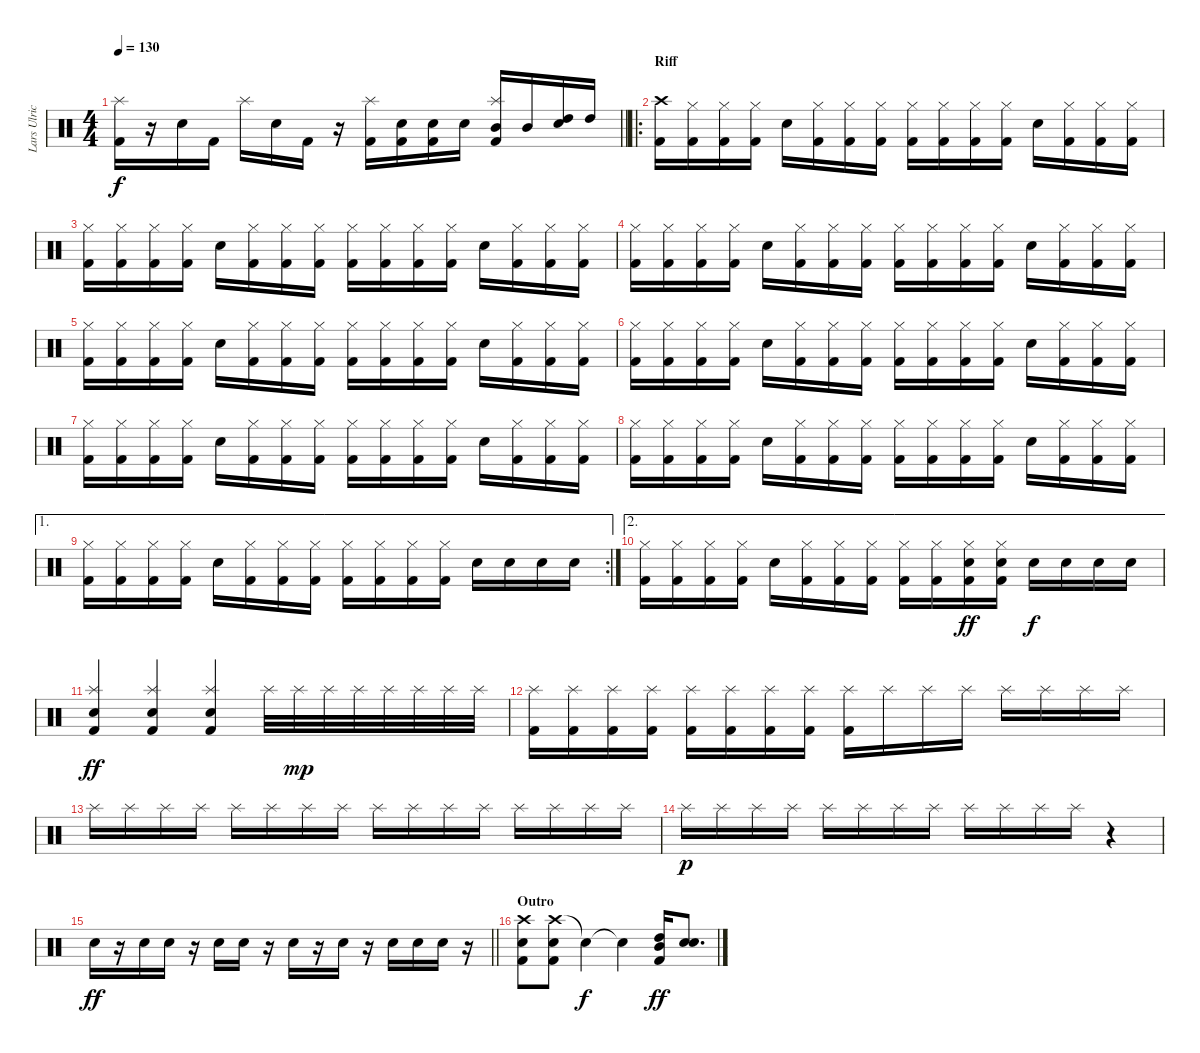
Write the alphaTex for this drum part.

\track ("Lars Ulrich" "Lars Ulric") {instrument percussion}
\staff {score}
\articulation defaults
\ts (4 4)
\tempo 130
\clef neutral
\barLineRight lightlight
\ks c
("Kick (hit) 2" "Splash (hit)").16{dy f} r.16 "Electric Snare (hit)".16 "Kick (hit) 2".16 "Splash (hit)".16 "Electric Snare (hit)".16 "Kick (hit) 2".16 r.16 ("Kick (hit) 2" "Splash (hit)").16 ("Kick (hit) 2" "Electric Snare (hit)").16 ("Kick (hit) 2" "Electric Snare (hit)").16 "Electric Snare (hit)".16 ("Kick (hit) 2" "Splash (hit)" "Mid Tom (hit)").16 "Mid Tom (hit)".16 ("Electric Snare (hit)" "High Tom (hit)").16 "High Tom (hit)".16 |
\ro
\section ("" "Riff")
("Kick (hit) 2" "Crash high (hit)").16 ("Kick (hit) 2" "Hi-Hat (closed)").16 ("Kick (hit) 2" "Hi-Hat (closed)").16 ("Kick (hit) 2" "Hi-Hat (closed)").16 "Electric Snare (hit)".16 ("Kick (hit) 2" "Hi-Hat (closed)").16 ("Kick (hit) 2" "Hi-Hat (closed)").16 ("Kick (hit) 2" "Hi-Hat (closed)").16 ("Kick (hit) 2" "Hi-Hat (closed)").16 ("Kick (hit) 2" "Hi-Hat (closed)").16 ("Kick (hit) 2" "Hi-Hat (closed)").16 ("Kick (hit) 2" "Hi-Hat (closed)").16 "Electric Snare (hit)".16 ("Kick (hit) 2" "Hi-Hat (closed)").16 ("Kick (hit) 2" "Hi-Hat (closed)").16 ("Kick (hit) 2" "Hi-Hat (closed)").16 |
("Kick (hit) 2" "Hi-Hat (closed)").16 ("Kick (hit) 2" "Hi-Hat (closed)").16 ("Kick (hit) 2" "Hi-Hat (closed)").16 ("Kick (hit) 2" "Hi-Hat (closed)").16 "Electric Snare (hit)".16 ("Kick (hit) 2" "Hi-Hat (closed)").16 ("Kick (hit) 2" "Hi-Hat (closed)").16 ("Kick (hit) 2" "Hi-Hat (closed)").16 ("Kick (hit) 2" "Hi-Hat (closed)").16 ("Kick (hit) 2" "Hi-Hat (closed)").16 ("Kick (hit) 2" "Hi-Hat (closed)").16 ("Kick (hit) 2" "Hi-Hat (closed)").16 "Electric Snare (hit)".16 ("Kick (hit) 2" "Hi-Hat (closed)").16 ("Kick (hit) 2" "Hi-Hat (closed)").16 ("Kick (hit) 2" "Hi-Hat (closed)").16 |
("Kick (hit) 2" "Hi-Hat (closed)").16 ("Kick (hit) 2" "Hi-Hat (closed)").16 ("Kick (hit) 2" "Hi-Hat (closed)").16 ("Kick (hit) 2" "Hi-Hat (closed)").16 "Electric Snare (hit)".16 ("Kick (hit) 2" "Hi-Hat (closed)").16 ("Kick (hit) 2" "Hi-Hat (closed)").16 ("Kick (hit) 2" "Hi-Hat (closed)").16 ("Kick (hit) 2" "Hi-Hat (closed)").16 ("Kick (hit) 2" "Hi-Hat (closed)").16 ("Kick (hit) 2" "Hi-Hat (closed)").16 ("Kick (hit) 2" "Hi-Hat (closed)").16 "Electric Snare (hit)".16 ("Kick (hit) 2" "Hi-Hat (closed)").16 ("Kick (hit) 2" "Hi-Hat (closed)").16 ("Kick (hit) 2" "Hi-Hat (closed)").16 |
("Kick (hit) 2" "Hi-Hat (closed)").16 ("Kick (hit) 2" "Hi-Hat (closed)").16 ("Kick (hit) 2" "Hi-Hat (closed)").16 ("Kick (hit) 2" "Hi-Hat (closed)").16 "Electric Snare (hit)".16 ("Kick (hit) 2" "Hi-Hat (closed)").16 ("Kick (hit) 2" "Hi-Hat (closed)").16 ("Kick (hit) 2" "Hi-Hat (closed)").16 ("Kick (hit) 2" "Hi-Hat (closed)").16 ("Kick (hit) 2" "Hi-Hat (closed)").16 ("Kick (hit) 2" "Hi-Hat (closed)").16 ("Kick (hit) 2" "Hi-Hat (closed)").16 "Electric Snare (hit)".16 ("Kick (hit) 2" "Hi-Hat (closed)").16 ("Kick (hit) 2" "Hi-Hat (closed)").16 ("Kick (hit) 2" "Hi-Hat (closed)").16 |
("Kick (hit) 2" "Hi-Hat (closed)").16 ("Kick (hit) 2" "Hi-Hat (closed)").16 ("Kick (hit) 2" "Hi-Hat (closed)").16 ("Kick (hit) 2" "Hi-Hat (closed)").16 "Electric Snare (hit)".16 ("Kick (hit) 2" "Hi-Hat (closed)").16 ("Kick (hit) 2" "Hi-Hat (closed)").16 ("Kick (hit) 2" "Hi-Hat (closed)").16 ("Kick (hit) 2" "Hi-Hat (closed)").16 ("Kick (hit) 2" "Hi-Hat (closed)").16 ("Kick (hit) 2" "Hi-Hat (closed)").16 ("Kick (hit) 2" "Hi-Hat (closed)").16 "Electric Snare (hit)".16 ("Kick (hit) 2" "Hi-Hat (closed)").16 ("Kick (hit) 2" "Hi-Hat (closed)").16 ("Kick (hit) 2" "Hi-Hat (closed)").16 |
("Kick (hit) 2" "Hi-Hat (closed)").16 ("Kick (hit) 2" "Hi-Hat (closed)").16 ("Kick (hit) 2" "Hi-Hat (closed)").16 ("Kick (hit) 2" "Hi-Hat (closed)").16 "Electric Snare (hit)".16 ("Kick (hit) 2" "Hi-Hat (closed)").16 ("Kick (hit) 2" "Hi-Hat (closed)").16 ("Kick (hit) 2" "Hi-Hat (closed)").16 ("Kick (hit) 2" "Hi-Hat (closed)").16 ("Kick (hit) 2" "Hi-Hat (closed)").16 ("Kick (hit) 2" "Hi-Hat (closed)").16 ("Kick (hit) 2" "Hi-Hat (closed)").16 "Electric Snare (hit)".16 ("Kick (hit) 2" "Hi-Hat (closed)").16 ("Kick (hit) 2" "Hi-Hat (closed)").16 ("Kick (hit) 2" "Hi-Hat (closed)").16 |
("Kick (hit) 2" "Hi-Hat (closed)").16 ("Kick (hit) 2" "Hi-Hat (closed)").16 ("Kick (hit) 2" "Hi-Hat (closed)").16 ("Kick (hit) 2" "Hi-Hat (closed)").16 "Electric Snare (hit)".16 ("Kick (hit) 2" "Hi-Hat (closed)").16 ("Kick (hit) 2" "Hi-Hat (closed)").16 ("Kick (hit) 2" "Hi-Hat (closed)").16 ("Kick (hit) 2" "Hi-Hat (closed)").16 ("Kick (hit) 2" "Hi-Hat (closed)").16 ("Kick (hit) 2" "Hi-Hat (closed)").16 ("Kick (hit) 2" "Hi-Hat (closed)").16 "Electric Snare (hit)".16 ("Kick (hit) 2" "Hi-Hat (closed)").16 ("Kick (hit) 2" "Hi-Hat (closed)").16 ("Kick (hit) 2" "Hi-Hat (closed)").16 |
\ae 1
\rc 2
("Kick (hit) 2" "Hi-Hat (closed)").16 ("Kick (hit) 2" "Hi-Hat (closed)").16 ("Kick (hit) 2" "Hi-Hat (closed)").16 ("Kick (hit) 2" "Hi-Hat (closed)").16 "Electric Snare (hit)".16 ("Kick (hit) 2" "Hi-Hat (closed)").16 ("Kick (hit) 2" "Hi-Hat (closed)").16 ("Kick (hit) 2" "Hi-Hat (closed)").16 ("Kick (hit) 2" "Hi-Hat (closed)").16 ("Kick (hit) 2" "Hi-Hat (closed)").16 ("Kick (hit) 2" "Hi-Hat (closed)").16 ("Kick (hit) 2" "Hi-Hat (closed)").16 "Electric Snare (hit)".16 "Electric Snare (hit)".16 "Electric Snare (hit)".16 "Electric Snare (hit)".16 |
\ae 2
("Kick (hit) 2" "Hi-Hat (closed)").16 ("Kick (hit) 2" "Hi-Hat (closed)").16 ("Kick (hit) 2" "Hi-Hat (closed)").16 ("Kick (hit) 2" "Hi-Hat (closed)").16 "Electric Snare (hit)".16 ("Kick (hit) 2" "Hi-Hat (closed)").16 ("Kick (hit) 2" "Hi-Hat (closed)").16 ("Kick (hit) 2" "Hi-Hat (closed)").16 ("Kick (hit) 2" "Hi-Hat (closed)").16 ("Kick (hit) 2" "Hi-Hat (closed)").16 ("Kick (hit) 2" "Electric Snare (hit)" "Hi-Hat (closed)").16{dy ff} ("Kick (hit) 2" "Electric Snare (hit)" "Hi-Hat (closed)").16 "Electric Snare (hit)".16{dy f} "Electric Snare (hit)".16 "Electric Snare (hit)".16 "Electric Snare (hit)".16 |
("Kick (hit) 2" "Electric Snare (hit)" "Splash (hit)").4{dy ff} ("Kick (hit) 2" "Electric Snare (hit)" "Splash (hit)").4 ("Kick (hit) 2" "Electric Snare (hit)" "Splash (hit)").4 "Splash (hit)".32 "Splash (hit)".32{dy mp} "Splash (hit)".32 "Splash (hit)".32 "Splash (hit)".32 "Splash (hit)".32 "Splash (hit)".32 "Splash (hit)".32 |
("Kick (hit) 2" "Splash (hit)").16 ("Kick (hit) 2" "Splash (hit)").16 ("Kick (hit) 2" "Splash (hit)").16 ("Kick (hit) 2" "Splash (hit)").16 ("Kick (hit) 2" "Splash (hit)").16 ("Kick (hit) 2" "Splash (hit)").16 ("Kick (hit) 2" "Splash (hit)").16 ("Kick (hit) 2" "Splash (hit)").16 ("Kick (hit) 2" "Splash (hit)").16 "Splash (hit)".16 "Splash (hit)".16 "Splash (hit)".16 "Splash (hit)".16 "Splash (hit)".16 "Splash (hit)".16 "Splash (hit)".16 |
"Splash (hit)".16 "Splash (hit)".16 "Splash (hit)".16 "Splash (hit)".16 "Splash (hit)".16 "Splash (hit)".16 "Splash (hit)".16 "Splash (hit)".16 "Splash (hit)".16 "Splash (hit)".16 "Splash (hit)".16 "Splash (hit)".16 "Splash (hit)".16 "Splash (hit)".16 "Splash (hit)".16 "Splash (hit)".16 |
"Splash (hit)".16{dy p} "Splash (hit)".16 "Splash (hit)".16 "Splash (hit)".16 "Splash (hit)".16 "Splash (hit)".16 "Splash (hit)".16 "Splash (hit)".16 "Splash (hit)".16 "Splash (hit)".16 "Splash (hit)".16 "Splash (hit)".16 r.4 |
\barLineRight lightlight "Electric Snare (hit)".16{dy ff}
r.16 "Electric Snare (hit)".16 "Electric Snare (hit)".16 r.16 "Electric Snare (hit)".16 "Electric Snare (hit)".16 r.16 "Electric Snare (hit)".16 r.16 "Electric Snare (hit)".16 r.16 "Electric Snare (hit)".16 "Electric Snare (hit)".16 "Electric Snare (hit)".16 r.16 |
\section ("" "Outro")
("Crash high (hit)" "Electric Snare (hit)" "Kick (hit) 2").8 ("Crash high (hit)" "Electric Snare (hit)" "Kick (hit) 2").8 "Snare (hit)"{t}.4{dy f} "Snare (hit)"{t}.4 ("Mid Tom (hit)" "Kick (hit) 2" "High Tom (hit)").16{dy ff} ("Electric Snare (hit)" "Electric Snare (hit)").8{d}
